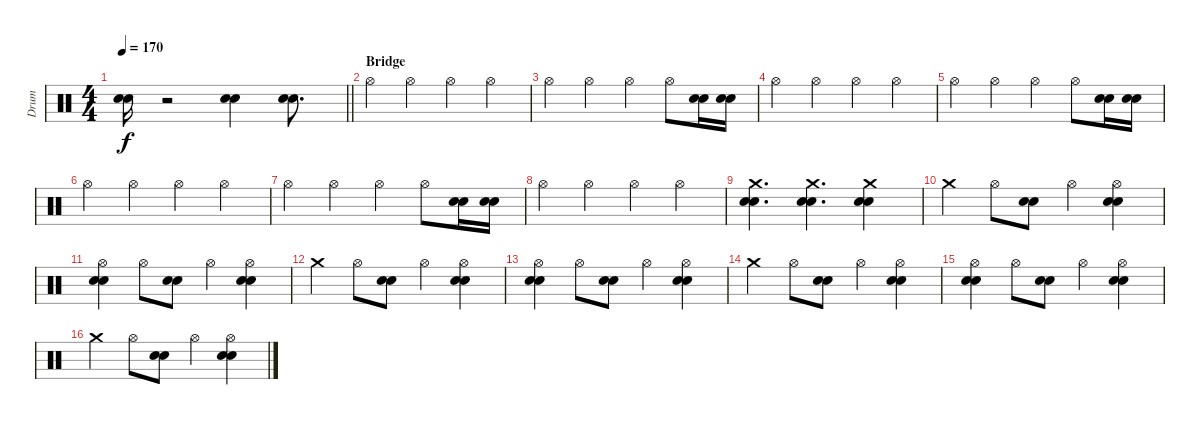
\track ("Drum" "Drum") {instrument percussion}
\staff
\articulation defaults
\ts (4 4)
\tempo 170
\clef neutral
\barLineRight lightlight
\ks c
("Electric Snare (hit)" "Snare (hit) 2").16{dy f} r.2 ("Electric Snare (hit)" "Snare (hit) 2").4 ("Electric Snare (hit)" "Snare (hit) 2").8{d} |
\section ("" "Bridge")
"Hi-Hat (open)".4 "Hi-Hat (open)".4 "Hi-Hat (open)".4 "Hi-Hat (open)".4 |
"Hi-Hat (open)".4 "Hi-Hat (open)".4 "Hi-Hat (open)".4 "Hi-Hat (open)".8 ("Electric Snare (hit)" "Snare (hit) 2").16 ("Electric Snare (hit)" "Snare (hit) 2").16 |
"Hi-Hat (open)".4 "Hi-Hat (open)".4 "Hi-Hat (open)".4 "Hi-Hat (open)".4 |
"Hi-Hat (open)".4 "Hi-Hat (open)".4 "Hi-Hat (open)".4 "Hi-Hat (open)".8 ("Electric Snare (hit)" "Snare (hit) 2").16 ("Electric Snare (hit)" "Snare (hit) 2").16 |
"Hi-Hat (open)".4 "Hi-Hat (open)".4 "Hi-Hat (open)".4 "Hi-Hat (open)".4 |
"Hi-Hat (open)".4 "Hi-Hat (open)".4 "Hi-Hat (open)".4 "Hi-Hat (open)".8 ("Electric Snare (hit)" "Snare (hit) 2").16 ("Electric Snare (hit)" "Snare (hit) 2").16 |
"Hi-Hat (open)".4 "Hi-Hat (open)".4 "Hi-Hat (open)".4 "Hi-Hat (open)".4 |
("Crash medium (hit)" "Electric Snare (hit)" "Snare (hit) 2").4{d} ("Crash medium (hit)" "Electric Snare (hit)" "Snare (hit) 2").4{d} ("Crash medium (hit)" "Electric Snare (hit)" "Snare (hit) 2").4 |
"Crash medium (hit)".4 "Hi-Hat (open)".8 ("Electric Snare (hit)" "Snare (hit) 2").8 "Hi-Hat (open)".4 ("Hi-Hat (open)" "Electric Snare (hit)" "Snare (hit) 2").4 |
("Hi-Hat (open)" "Electric Snare (hit)" "Snare (hit) 2").4 "Hi-Hat (open)".8 ("Electric Snare (hit)" "Snare (hit) 2").8 "Hi-Hat (open)".4 ("Hi-Hat (open)" "Electric Snare (hit)" "Snare (hit) 2").4 |
"Crash medium (hit)".4 "Hi-Hat (open)".8 ("Electric Snare (hit)" "Snare (hit) 2").8 "Hi-Hat (open)".4 ("Hi-Hat (open)" "Electric Snare (hit)" "Snare (hit) 2").4 |
("Hi-Hat (open)" "Electric Snare (hit)" "Snare (hit) 2").4 "Hi-Hat (open)".8 ("Electric Snare (hit)" "Snare (hit) 2").8 "Hi-Hat (open)".4 ("Hi-Hat (open)" "Electric Snare (hit)" "Snare (hit) 2").4 |
"Crash medium (hit)".4 "Hi-Hat (open)".8 ("Electric Snare (hit)" "Snare (hit) 2").8 "Hi-Hat (open)".4 ("Hi-Hat (open)" "Electric Snare (hit)" "Snare (hit) 2").4 |
("Hi-Hat (open)" "Electric Snare (hit)" "Snare (hit) 2").4 "Hi-Hat (open)".8 ("Electric Snare (hit)" "Snare (hit) 2").8 "Hi-Hat (open)".4 ("Hi-Hat (open)" "Electric Snare (hit)" "Snare (hit) 2").4 |
"Crash medium (hit)".4 "Hi-Hat (open)".8 ("Electric Snare (hit)" "Snare (hit) 2").8 "Hi-Hat (open)".4 ("Hi-Hat (open)" "Electric Snare (hit)" "Snare (hit) 2").4
